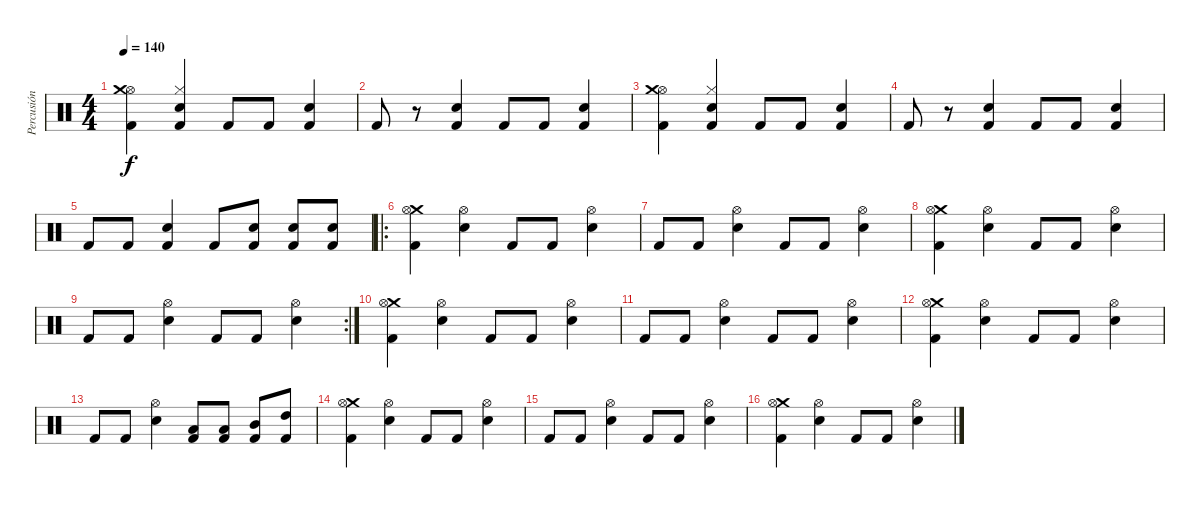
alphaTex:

\track ("Percusión" "Percusión") {instrument percussion}
\staff {score}
\articulation defaults
\ts (4 4)
\tempo 140
\clef neutral
\ks c
("Hi-Hat (open)" "Crash medium (hit)" "Kick (hit) 2").4{dy f} ("Hi-Hat (closed)" "Snare (hit) 2" "Kick (hit) 2").4 "Kick (hit) 2".8 "Kick (hit) 2".8 ("Snare (hit) 2" "Kick (hit) 2").4 |
"Kick (hit) 2".8 r.8 ("Snare (hit) 2" "Kick (hit) 2").4 "Kick (hit) 2".8 "Kick (hit) 2".8 ("Snare (hit) 2" "Kick (hit) 2").4 |
("Hi-Hat (open)" "Crash medium (hit)" "Kick (hit) 2").4 ("Hi-Hat (closed)" "Snare (hit) 2" "Kick (hit) 2").4 "Kick (hit) 2".8 "Kick (hit) 2".8 ("Snare (hit) 2" "Kick (hit) 2").4 |
"Kick (hit) 2".8 r.8 ("Snare (hit) 2" "Kick (hit) 2").4 "Kick (hit) 2".8 "Kick (hit) 2".8 ("Snare (hit) 2" "Kick (hit) 2").4 |
"Kick (hit) 2".8 "Kick (hit) 2".8 ("Snare (hit) 2" "Kick (hit) 2").4 "Kick (hit) 2".8 ("Snare (hit) 2" "Kick (hit) 2").8 ("Snare (hit) 2" "Kick (hit) 2").8 ("Snare (hit) 2" "Kick (hit) 2").8 |
\ro
("Crash medium (hit)" "Hi-Hat (open)" "Kick (hit) 2").4 ("Hi-Hat (open)" "Snare (hit) 2").4 "Kick (hit) 2".8 "Kick (hit) 2".8 ("Hi-Hat (open)" "Snare (hit) 2").4 |
"Kick (hit) 2".8 "Kick (hit) 2".8 ("Hi-Hat (open)" "Snare (hit) 2").4 "Kick (hit) 2".8 "Kick (hit) 2".8 ("Hi-Hat (open)" "Snare (hit) 2").4 |
("Crash medium (hit)" "Hi-Hat (open)" "Kick (hit) 2").4 ("Hi-Hat (open)" "Snare (hit) 2").4 "Kick (hit) 2".8 "Kick (hit) 2".8 ("Hi-Hat (open)" "Snare (hit) 2").4 |
\rc 2 "Kick (hit) 2".8 "Kick (hit) 2".8
("Hi-Hat (open)" "Snare (hit) 2").4 "Kick (hit) 2".8 "Kick (hit) 2".8 ("Hi-Hat (open)" "Snare (hit) 2").4 |
("Crash medium (hit)" "Hi-Hat (open)" "Kick (hit) 2").4 ("Hi-Hat (open)" "Snare (hit) 2").4 "Kick (hit) 2".8 "Kick (hit) 2".8 ("Hi-Hat (open)" "Snare (hit) 2").4 |
"Kick (hit) 2".8 "Kick (hit) 2".8 ("Hi-Hat (open)" "Snare (hit) 2").4 "Kick (hit) 2".8 "Kick (hit) 2".8 ("Hi-Hat (open)" "Snare (hit) 2").4 |
("Crash medium (hit)" "Hi-Hat (open)" "Kick (hit) 2").4 ("Hi-Hat (open)" "Snare (hit) 2").4 "Kick (hit) 2".8 "Kick (hit) 2".8 ("Hi-Hat (open)" "Snare (hit) 2").4 |
"Kick (hit) 2".8 "Kick (hit) 2".8 ("Hi-Hat (open)" "Snare (hit) 2").4 ("Low Tom (hit)" "Kick (hit) 2").8 ("Low Tom (hit)" "Kick (hit) 2").8 ("Mid Tom (hit)" "Kick (hit) 2").8 ("High Tom (hit)" "Kick (hit) 2").8 |
("Crash medium (hit)" "Hi-Hat (open)" "Kick (hit) 2").4 ("Hi-Hat (open)" "Snare (hit) 2").4 "Kick (hit) 2".8 "Kick (hit) 2".8 ("Hi-Hat (open)" "Snare (hit) 2").4 |
"Kick (hit) 2".8 "Kick (hit) 2".8 ("Hi-Hat (open)" "Snare (hit) 2").4 "Kick (hit) 2".8 "Kick (hit) 2".8 ("Hi-Hat (open)" "Snare (hit) 2").4 |
("Crash medium (hit)" "Hi-Hat (open)" "Kick (hit) 2").4 ("Hi-Hat (open)" "Snare (hit) 2").4 "Kick (hit) 2".8 "Kick (hit) 2".8 ("Hi-Hat (open)" "Snare (hit) 2").4
